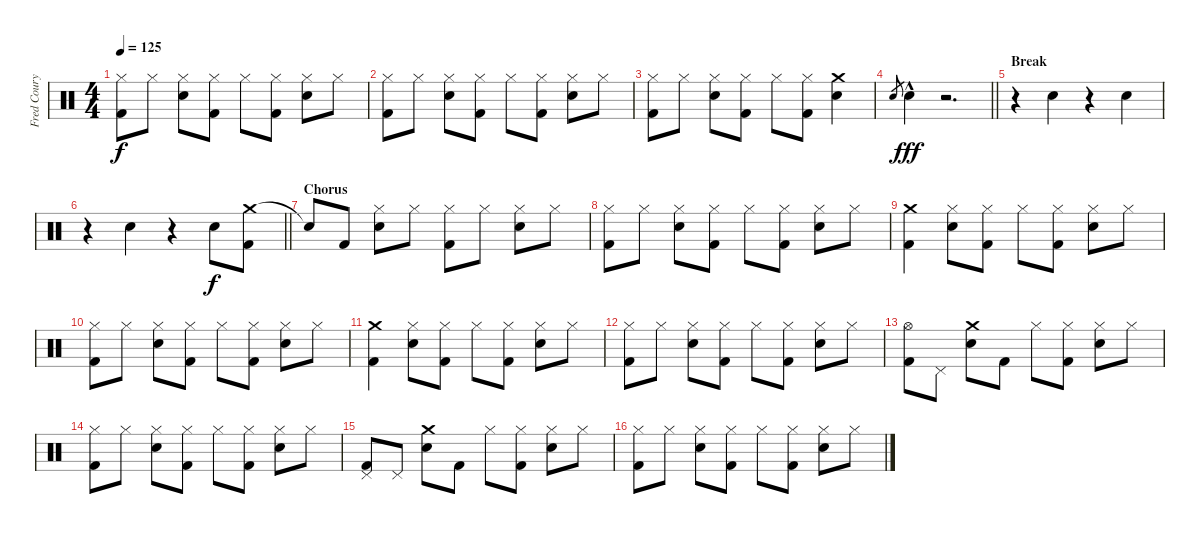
\track ("Fred Coury - Drums" "Fred Coury") {instrument percussion}
\staff {score}
\articulation defaults
\ts (4 4)
\tempo 125
\clef neutral
\ks c
("Hi-Hat (closed)" "Kick (hit) 2").8{dy f} "Hi-Hat (closed)".8 ("Hi-Hat (closed)" "Snare (hit) 2").8 ("Hi-Hat (closed)" "Kick (hit) 2").8 "Hi-Hat (closed)".8 ("Hi-Hat (closed)" "Kick (hit) 2").8 ("Hi-Hat (closed)" "Snare (hit) 2").8 "Hi-Hat (closed)".8 |
("Hi-Hat (closed)" "Kick (hit) 2").8 "Hi-Hat (closed)".8 ("Hi-Hat (closed)" "Snare (hit) 2").8 ("Hi-Hat (closed)" "Kick (hit) 2").8 "Hi-Hat (closed)".8 ("Hi-Hat (closed)" "Kick (hit) 2").8 ("Hi-Hat (closed)" "Snare (hit) 2").8 "Hi-Hat (closed)".8 |
("Hi-Hat (closed)" "Kick (hit) 2").8 "Hi-Hat (closed)".8 ("Hi-Hat (closed)" "Snare (hit) 2").8 ("Hi-Hat (closed)" "Kick (hit) 2").8 "Hi-Hat (closed)".8 ("Hi-Hat (closed)" "Kick (hit) 2").8 ("Crash medium (hit)" "Snare (hit) 2").4 |
\barLineRight lightlight "Snare (hit) 2".8{gr} "Snare (hit) 2"{hac}.4{dy fff}
r.2{d} |
\section ("" "Break")
r.4 "Snare (hit) 2".4 r.4 "Snare (hit) 2".4 |
\barLineRight lightlight
r.4 "Snare (hit) 2".4 r.4 "Snare (hit) 2".8{dy f} ("Crash medium (hit)" "Kick (hit) 2").8 |
\section ("" "Chorus")
"Snare (hit)"{t}.8 "Kick (hit) 2".8 ("Hi-Hat (closed)" "Snare (hit) 2").8 "Hi-Hat (closed)".8 ("Hi-Hat (closed)" "Kick (hit) 2").8 "Hi-Hat (closed)".8 ("Hi-Hat (closed)" "Snare (hit) 2").8 "Hi-Hat (closed)".8 |
("Hi-Hat (closed)" "Kick (hit) 2").8 "Hi-Hat (closed)".8 ("Hi-Hat (closed)" "Snare (hit) 2").8 ("Hi-Hat (closed)" "Kick (hit) 2").8 "Hi-Hat (closed)".8 ("Hi-Hat (closed)" "Kick (hit) 2").8 ("Hi-Hat (closed)" "Snare (hit) 2").8 "Hi-Hat (closed)".8 |
("Crash medium (hit)" "Kick (hit) 2").4 ("Hi-Hat (closed)" "Snare (hit) 2").8 ("Hi-Hat (closed)" "Kick (hit) 2").8 "Hi-Hat (closed)".8 ("Hi-Hat (closed)" "Kick (hit) 2").8 ("Hi-Hat (closed)" "Snare (hit) 2").8 "Hi-Hat (closed)".8 |
("Hi-Hat (closed)" "Kick (hit) 2").8 "Hi-Hat (closed)".8 ("Hi-Hat (closed)" "Snare (hit) 2").8 ("Hi-Hat (closed)" "Kick (hit) 2").8 "Hi-Hat (closed)".8 ("Hi-Hat (closed)" "Kick (hit) 2").8 ("Hi-Hat (closed)" "Snare (hit) 2").8 "Hi-Hat (closed)".8 |
("Crash medium (hit)" "Kick (hit) 2").4 ("Hi-Hat (closed)" "Snare (hit) 2").8 ("Hi-Hat (closed)" "Kick (hit) 2").8 "Hi-Hat (closed)".8 ("Hi-Hat (closed)" "Kick (hit) 2").8 ("Hi-Hat (closed)" "Snare (hit) 2").8 "Hi-Hat (closed)".8 |
("Hi-Hat (closed)" "Kick (hit) 2").8 "Hi-Hat (closed)".8 ("Hi-Hat (closed)" "Snare (hit) 2").8 ("Hi-Hat (closed)" "Kick (hit) 2").8 "Hi-Hat (closed)".8 ("Hi-Hat (closed)" "Kick (hit) 2").8 ("Hi-Hat (closed)" "Snare (hit) 2").8 "Hi-Hat (closed)".8 |
("Hi-Hat (open)" "Kick (hit) 2").8 "Pedal Hi-Hat (hit)".8 ("Crash medium (hit)" "Snare (hit) 2").8 "Kick (hit) 2".8 "Hi-Hat (closed)".8 ("Hi-Hat (closed)" "Kick (hit) 2").8 ("Hi-Hat (closed)" "Snare (hit) 2").8 "Hi-Hat (closed)".8 |
("Hi-Hat (closed)" "Kick (hit) 2").8 "Hi-Hat (closed)".8 ("Hi-Hat (closed)" "Snare (hit) 2").8 ("Hi-Hat (closed)" "Kick (hit) 2").8 "Hi-Hat (closed)".8 ("Hi-Hat (closed)" "Kick (hit) 2").8 ("Hi-Hat (closed)" "Snare (hit) 2").8 "Hi-Hat (closed)".8 |
("Pedal Hi-Hat (hit)" "Kick (hit) 2").8 "Pedal Hi-Hat (hit)".8 ("Crash medium (hit)" "Snare (hit) 2").8 "Kick (hit) 2".8 "Hi-Hat (closed)".8 ("Hi-Hat (closed)" "Kick (hit) 2").8 ("Hi-Hat (closed)" "Snare (hit) 2").8 "Hi-Hat (closed)".8 |
("Hi-Hat (closed)" "Kick (hit) 2").8 "Hi-Hat (closed)".8 ("Hi-Hat (closed)" "Snare (hit) 2").8 ("Hi-Hat (closed)" "Kick (hit) 2").8 "Hi-Hat (closed)".8 ("Hi-Hat (closed)" "Kick (hit) 2").8 ("Hi-Hat (closed)" "Snare (hit) 2").8 "Hi-Hat (closed)".8
